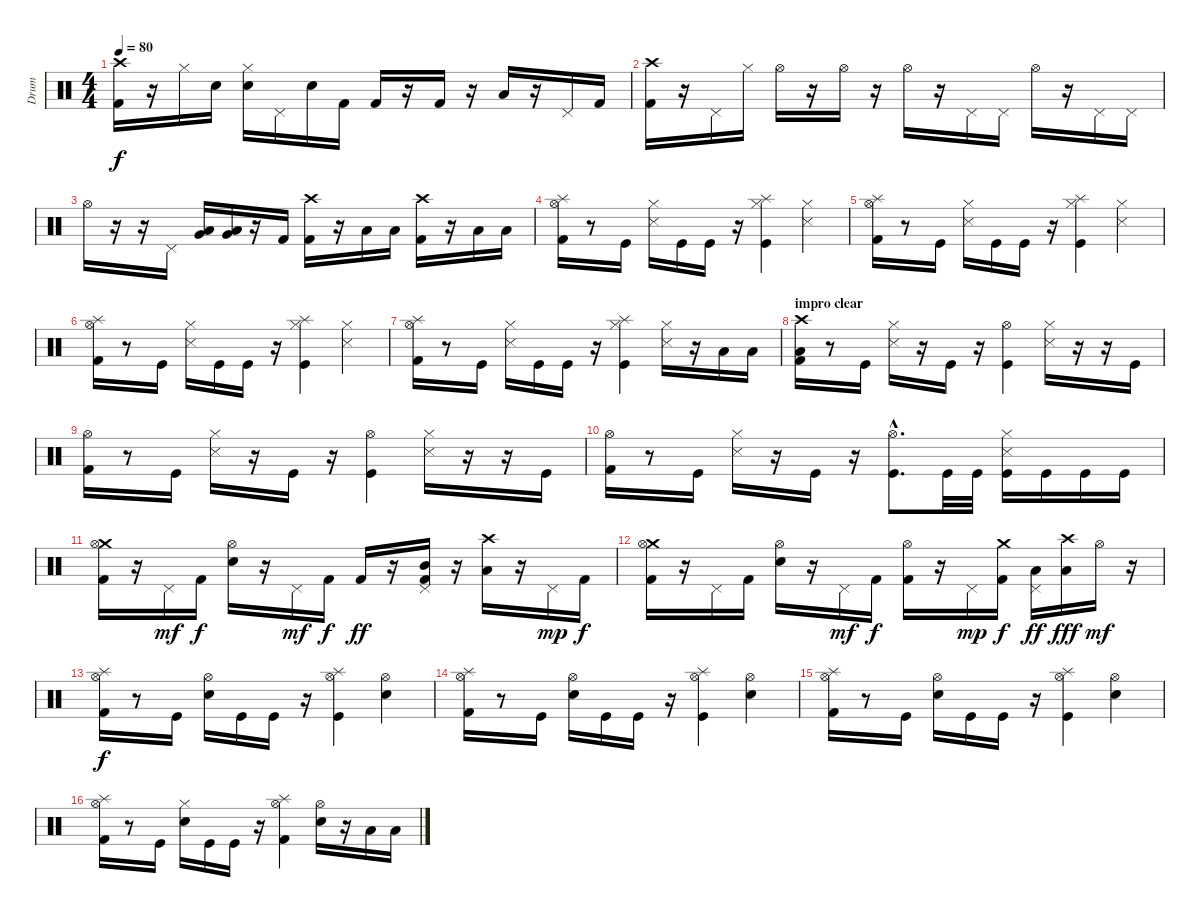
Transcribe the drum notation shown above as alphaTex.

\track ("Drum" "Drum") {instrument percussion}
\staff {score}
\articulation defaults
\ts (4 4)
\tempo 80
\clef neutral
\ks c
("Crash high (hit)" "Kick (hit) 2").16{dy f} r.16 "Hi-Hat (closed)".16 "Snare (hit) 2".16 ("Hi-Hat (closed)" "Snare (hit) 2").16 "Pedal Hi-Hat (hit)".16 "Snare (hit) 2".16 "Kick (hit) 2".16 "Kick (hit) 2".16 r.16 "Kick (hit) 2".16 r.16 "Low Floor Tom (hit)".16 r.16 "Pedal Hi-Hat (hit)".16 "Kick (hit) 2".16 |
("Crash high (hit)" "Kick (hit) 2").16 r.16 "Pedal Hi-Hat (hit)".16 "Hi-Hat (closed)".16 "Hi-Hat (open)".16 r.16 "Hi-Hat (open)".16 r.16 "Hi-Hat (open)".16 r.16 "Pedal Hi-Hat (hit)".16 "Pedal Hi-Hat (hit)".16 "Hi-Hat (open)".16 r.16 "Pedal Hi-Hat (hit)".16 "Pedal Hi-Hat (hit)".16 |
"Hi-Hat (open)".16 r.16 r.16 "Pedal Hi-Hat (hit)".16 ("Low Tom (hit)" "Very Low Tom (hit)").16 ("Low Tom (hit)" "Very Low Tom (hit)").16 r.16 "Kick (hit) 2".16 ("Crash high (hit)" "Kick (hit) 2").16 r.16 "Low Floor Tom (hit)".16 "Low Floor Tom (hit)".16 ("Crash high (hit)" "Kick (hit) 2").16 r.16 "Low Floor Tom (hit)".16 "Low Floor Tom (hit)".16 |
("Splash (hit)" "Hi-Hat (open)" "Kick (hit) 2").16 r.8 "Kick (hit)".16 ("Hi-Hat (closed)" "Snare (side stick) 3").16 "Kick (hit)".16 "Kick (hit)".16 r.16 ("Splash (hit)" "Hi-Hat (closed)" "Kick (hit)").4 ("Hi-Hat (closed)" "Snare (side stick) 3").4 |
("Splash (hit)" "Hi-Hat (open)" "Kick (hit) 2").16 r.8 "Kick (hit)".16 ("Hi-Hat (closed)" "Snare (side stick) 3").16 "Kick (hit)".16 "Kick (hit)".16 r.16 ("Splash (hit)" "Hi-Hat (closed)" "Kick (hit)").4 ("Hi-Hat (closed)" "Snare (side stick) 3").4 |
("Splash (hit)" "Hi-Hat (open)" "Kick (hit) 2").16 r.8 "Kick (hit)".16 ("Hi-Hat (closed)" "Snare (side stick) 3").16 "Kick (hit)".16 "Kick (hit)".16 r.16 ("Splash (hit)" "Hi-Hat (closed)" "Kick (hit)").4 ("Hi-Hat (closed)" "Snare (side stick) 3").4 |
("Splash (hit)" "Hi-Hat (open)" "Kick (hit) 2").16 r.8 "Kick (hit)".16 ("Hi-Hat (closed)" "Snare (side stick) 3").16 "Kick (hit)".16 "Kick (hit)".16 r.16 ("Splash (hit)" "Hi-Hat (closed)" "Kick (hit)").4 ("Hi-Hat (closed)" "Snare (side stick) 3").16 r.16 "Low Floor Tom (hit)".16 "Low Floor Tom (hit)".16 |
\section ("" "impro clear")
("Crash high (hit)" "Low Floor Tom (hit)" "Kick (hit) 2").16 r.8 "Kick (hit)".16 ("Hi-Hat (closed)" "Snare (side stick) 3").16 r.16 "Kick (hit)".16 r.16 ("Hi-Hat (open)" "Kick (hit)").4 ("Hi-Hat (closed)" "Snare (side stick) 3").16 r.16 r.16 "Kick (hit)".16 |
("Hi-Hat (open)" "Kick (hit) 2").16 r.8 "Kick (hit)".16 ("Hi-Hat (closed)" "Snare (side stick) 3").16 r.16 "Kick (hit)".16 r.16 ("Hi-Hat (open)" "Kick (hit)").4 ("Hi-Hat (closed)" "Snare (side stick) 3").16 r.16 r.16 "Kick (hit)".16 |
("Hi-Hat (open)" "Kick (hit) 2").16 r.8 "Kick (hit)".16 ("Hi-Hat (closed)" "Snare (side stick) 3").16 r.16 "Kick (hit)".16 r.16 ("Hi-Hat (open)"{hac} "Kick (hit)"{hac}).8{d} "Kick (hit)".32 "Kick (hit)".32 ("Hi-Hat (closed)" "Snare (side stick) 3" "Kick (hit)").16 "Kick (hit)".16 "Kick (hit)".16 "Kick (hit)".16 |
("Crash medium (hit)" "Hi-Hat (open)" "Kick (hit) 2").16 r.16 "Pedal Hi-Hat (hit)".16{dy mf} "Kick (hit) 2".16{dy f} ("Hi-Hat (open)" "Snare (hit) 2").16 r.16 "Pedal Hi-Hat (hit)".16{dy mf} "Kick (hit) 2".16{dy f} "Kick (hit) 2".16{dy ff} r.16 ("Pedal Hi-Hat (hit)" "Mid Tom (hit)" "Kick (hit) 2").16 r.16 ("Crash high (hit)" "Low Tom (hit)").16 r.16 "Pedal Hi-Hat (hit)".16{dy mp} "Kick (hit) 2".16{dy f} |
("Crash medium (hit)" "Hi-Hat (open)" "Kick (hit) 2").16 r.16 "Pedal Hi-Hat (hit)".16 "Kick (hit) 2".16 ("Hi-Hat (open)" "Snare (hit) 2").16 r.16 "Pedal Hi-Hat (hit)".16{dy mf} "Kick (hit) 2".16{dy f} ("Hi-Hat (open)" "Kick (hit) 2").16 r.16 "Pedal Hi-Hat (hit)".16{dy mp} ("Crash medium (hit)" "Kick (hit) 2").16{dy f} ("Low Tom (hit)" "Pedal Hi-Hat (hit)").16{dy ff} ("Crash high (hit)" "Low Tom (hit)").16{dy fff} "Hi-Hat (open)".16{dy mf} r.16 |
("Splash (hit)" "Hi-Hat (open)" "Kick (hit) 2").16{dy f} r.8 "Kick (hit)".16 ("Hi-Hat (open)" "Snare (hit) 2").16 "Kick (hit)".16 "Kick (hit)".16 r.16 ("Splash (hit)" "Hi-Hat (open)" "Kick (hit)").4 ("Hi-Hat (open)" "Snare (hit) 2").4 |
("Splash (hit)" "Hi-Hat (open)" "Kick (hit) 2").16 r.8 "Kick (hit)".16 ("Hi-Hat (open)" "Snare (hit) 2").16 "Kick (hit)".16 "Kick (hit)".16 r.16 ("Splash (hit)" "Hi-Hat (open)" "Kick (hit)").4 ("Hi-Hat (open)" "Snare (hit) 2").4 |
("Splash (hit)" "Hi-Hat (open)" "Kick (hit) 2").16 r.8 "Kick (hit)".16 ("Hi-Hat (open)" "Snare (hit) 2").16 "Kick (hit)".16 "Kick (hit)".16 r.16 ("Splash (hit)" "Hi-Hat (open)" "Kick (hit)").4 ("Hi-Hat (open)" "Snare (hit) 2").4 |
("Splash (hit)" "Hi-Hat (open)" "Kick (hit) 2").16 r.8 "Kick (hit)".16 ("Hi-Hat (closed)" "Snare (hit) 2").16 "Kick (hit)".16 "Kick (hit)".16 r.16 ("Splash (hit)" "Hi-Hat (open)" "Kick (hit) 2").4 ("Hi-Hat (open)" "Snare (hit) 2").16 r.16 "Low Floor Tom (hit)".16 "Low Floor Tom (hit)".16
